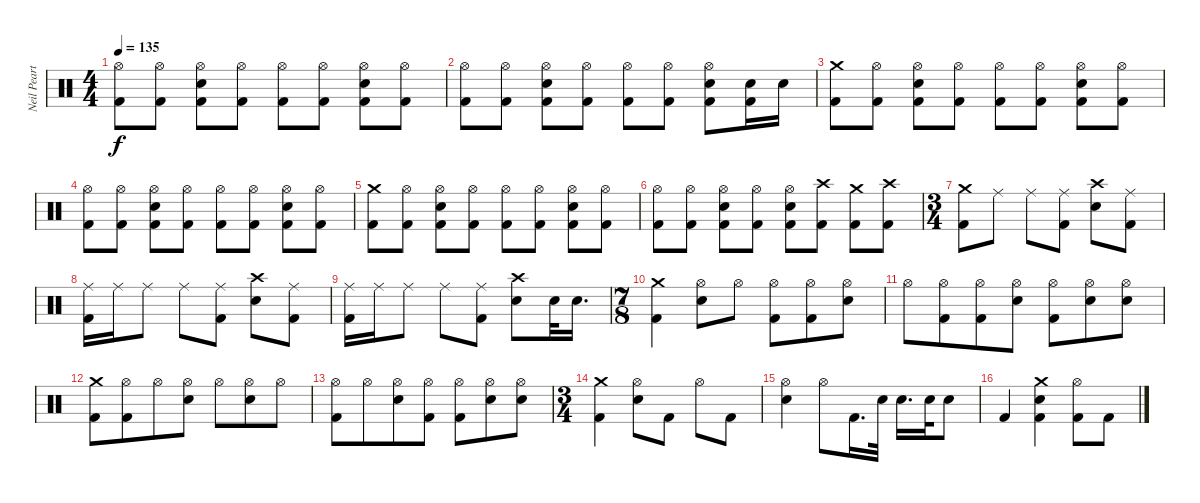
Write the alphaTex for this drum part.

\track ("Neil Peart" "Neil Peart") {instrument percussion}
\staff {score}
\articulation defaults
\ts (4 4)
\tempo 135
\clef neutral
\ks c
("Hi-Hat (open)" "Kick (hit) 2").8{dy f} ("Hi-Hat (open)" "Kick (hit) 2").8 ("Hi-Hat (open)" "Snare (hit) 2" "Kick (hit) 2").8 ("Hi-Hat (open)" "Kick (hit) 2").8 ("Hi-Hat (open)" "Kick (hit) 2").8 ("Hi-Hat (open)" "Kick (hit) 2").8 ("Hi-Hat (open)" "Snare (hit) 2" "Kick (hit) 2").8 ("Hi-Hat (open)" "Kick (hit) 2").8 |
("Hi-Hat (open)" "Kick (hit) 2").8 ("Hi-Hat (open)" "Kick (hit) 2").8 ("Hi-Hat (open)" "Snare (hit) 2" "Kick (hit) 2").8 ("Hi-Hat (open)" "Kick (hit) 2").8 ("Hi-Hat (open)" "Kick (hit) 2").8 ("Hi-Hat (open)" "Kick (hit) 2").8 ("Hi-Hat (open)" "Snare (hit) 2" "Kick (hit) 2").8 ("Snare (hit) 2" "Kick (hit) 2").16 "Snare (hit) 2".16 |
("Crash medium (hit)" "Kick (hit) 2").8 ("Hi-Hat (open)" "Kick (hit) 2").8 ("Hi-Hat (open)" "Snare (hit) 2" "Kick (hit) 2").8 ("Hi-Hat (open)" "Kick (hit) 2").8 ("Hi-Hat (open)" "Kick (hit) 2").8 ("Hi-Hat (open)" "Kick (hit) 2").8 ("Hi-Hat (open)" "Snare (hit) 2" "Kick (hit) 2").8 ("Hi-Hat (open)" "Kick (hit) 2").8 |
("Hi-Hat (open)" "Kick (hit) 2").8 ("Hi-Hat (open)" "Kick (hit) 2").8 ("Hi-Hat (open)" "Snare (hit) 2" "Kick (hit) 2").8 ("Hi-Hat (open)" "Kick (hit) 2").8 ("Hi-Hat (open)" "Kick (hit) 2").8 ("Hi-Hat (open)" "Kick (hit) 2").8 ("Hi-Hat (open)" "Snare (hit) 2" "Kick (hit) 2").8 ("Hi-Hat (open)" "Kick (hit) 2").8 |
("Crash medium (hit)" "Kick (hit) 2").8 ("Hi-Hat (open)" "Kick (hit) 2").8 ("Hi-Hat (open)" "Snare (hit) 2" "Kick (hit) 2").8 ("Hi-Hat (open)" "Kick (hit) 2").8 ("Hi-Hat (open)" "Kick (hit) 2").8 ("Hi-Hat (open)" "Kick (hit) 2").8 ("Hi-Hat (open)" "Snare (hit) 2" "Kick (hit) 2").8 ("Hi-Hat (open)" "Kick (hit) 2").8 |
("Hi-Hat (open)" "Kick (hit) 2").8 ("Hi-Hat (open)" "Kick (hit) 2").8 ("Hi-Hat (open)" "Snare (hit) 2" "Kick (hit) 2").8 ("Hi-Hat (open)" "Kick (hit) 2").8 ("Hi-Hat (open)" "Snare (hit) 2" "Kick (hit) 2").8 ("Crash high (hit)" "Kick (hit) 2").8 ("Crash medium (hit)" "Kick (hit) 2").8 ("Crash high (hit)" "Kick (hit) 2").8 |
\ts (3 4)
("Crash medium (hit)" "Kick (hit) 2").8 "Ride (middle)".8 "Ride (middle)".8 ("Ride (middle)" "Kick (hit) 2").8 ("Crash high (hit)" "Snare (hit) 2").8 ("Ride (middle)" "Kick (hit) 2").8 |
("Ride (middle)" "Kick (hit) 2").16 "Ride (middle)".16 "Ride (middle)".8 "Ride (middle)".8 ("Ride (middle)" "Kick (hit) 2").8 ("Crash high (hit)" "Snare (hit) 2").8 ("Ride (middle)" "Kick (hit) 2").8 |
("Ride (middle)" "Kick (hit) 2").16 "Ride (middle)".16 "Ride (middle)".8 "Ride (middle)".8 ("Ride (middle)" "Kick (hit) 2").8 ("Crash high (hit)" "Snare (hit) 2").8 "Snare (hit) 2".32 "Snare (hit) 2".16{d} |
\ts (7 8)
("Crash medium (hit)" "Kick (hit) 2").4 ("Hi-Hat (open)" "Snare (hit) 2").8 "Hi-Hat (open)".8 ("Hi-Hat (open)" "Kick (hit) 2").8 ("Hi-Hat (open)" "Kick (hit) 2").8 ("Hi-Hat (open)" "Snare (hit) 2").8 |
"Hi-Hat (open)".8 ("Hi-Hat (open)" "Kick (hit) 2").8 ("Hi-Hat (open)" "Kick (hit) 2").8 ("Hi-Hat (open)" "Snare (hit) 2").8 ("Hi-Hat (open)" "Kick (hit) 2").8 ("Hi-Hat (open)" "Snare (hit) 2").8 ("Hi-Hat (open)" "Snare (hit) 2").8 |
("Crash medium (hit)" "Kick (hit) 2").8 ("Hi-Hat (open)" "Kick (hit) 2").8 "Hi-Hat (open)".8 ("Hi-Hat (open)" "Snare (hit) 2").8 "Hi-Hat (open)".8 ("Hi-Hat (open)" "Snare (hit) 2").8 "Hi-Hat (open)".8 |
("Hi-Hat (open)" "Kick (hit) 2").8 "Hi-Hat (open)".8 ("Hi-Hat (open)" "Snare (hit) 2").8 ("Hi-Hat (open)" "Kick (hit) 2").8 ("Hi-Hat (open)" "Kick (hit) 2").8 ("Hi-Hat (open)" "Snare (hit) 2").8 ("Hi-Hat (open)" "Snare (hit) 2").8 |
\ts (3 4)
("Crash medium (hit)" "Kick (hit) 2").4 ("Hi-Hat (open)" "Snare (hit) 2").8 "Kick (hit) 2".8 "Hi-Hat (open)".8 "Kick (hit) 2".8 |
("Hi-Hat (open)" "Snare (hit) 2").4 "Hi-Hat (open)".8 "Kick (hit) 2".16{d} "Snare (hit) 2".32 "Snare (hit) 2".16{d} "Snare (hit) 2".32 "Snare (hit) 2".8 |
"Kick (hit) 2".4 ("Crash medium (hit)" "Snare (hit) 2" "Kick (hit) 2").4 ("Hi-Hat (open)" "Kick (hit) 2").8 "Kick (hit) 2".8
